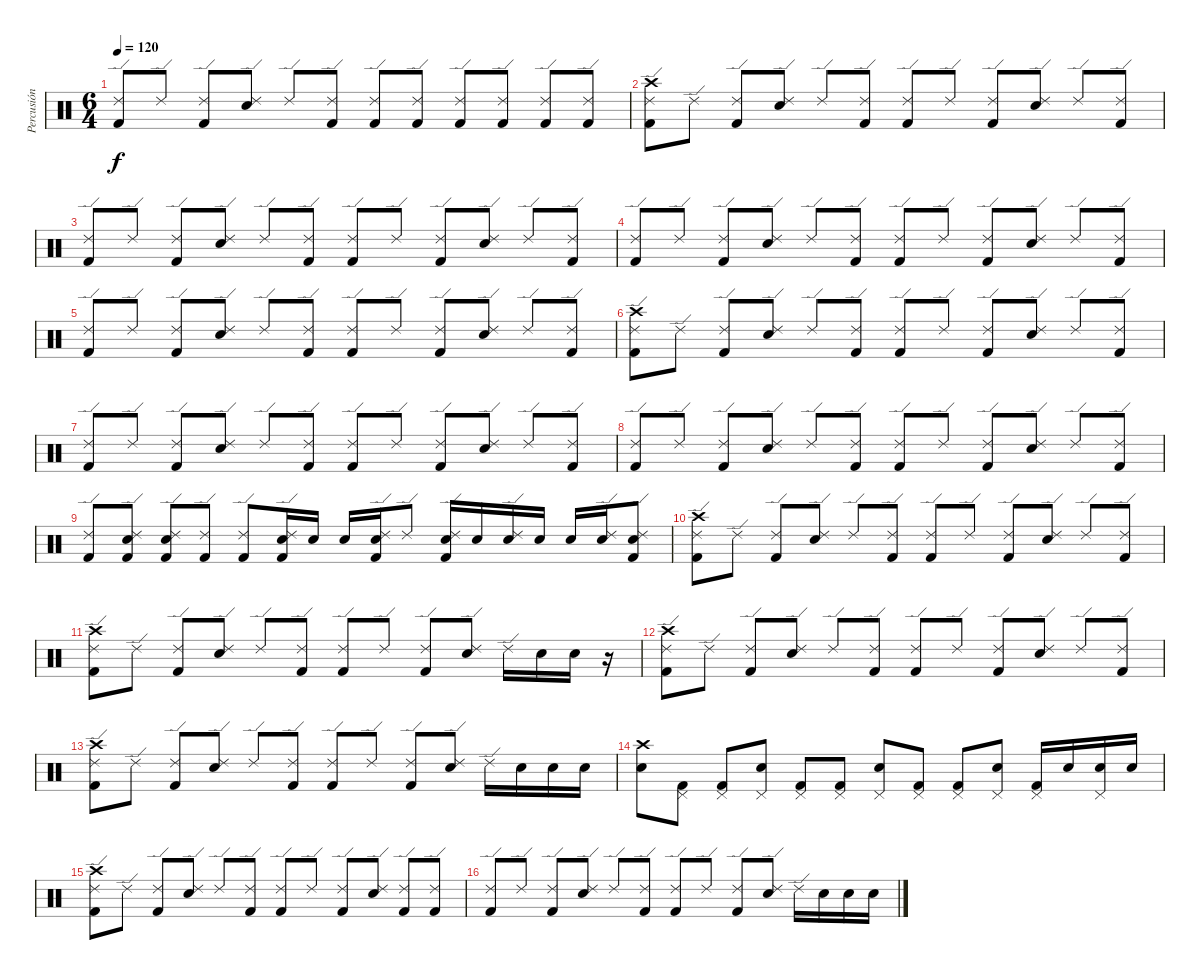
\track ("Percusión" "Percusión") {instrument percussion}
\staff {score}
\articulation defaults
\ts (6 4)
\tempo 120
\clef neutral
\ks c
("Kick (hit) 2" "Ride (edge) 2").8{dy f} "Ride (edge) 2".8 ("Kick (hit) 2" "Ride (edge) 2").8 ("Snare (hit) 2" "Ride (edge) 2").8 "Ride (edge) 2".8 ("Kick (hit) 2" "Ride (edge) 2").8 ("Kick (hit) 2" "Ride (edge) 2").8 ("Kick (hit) 2" "Ride (edge) 2").8 ("Kick (hit) 2" "Ride (edge) 2").8 ("Kick (hit) 2" "Ride (edge) 2").8 ("Kick (hit) 2" "Ride (edge) 2").8 ("Kick (hit) 2" "Ride (edge) 2").8 |
("Kick (hit) 2" "Crash high (hit)" "Ride (edge) 2").8 "Ride (edge) 2".8 ("Kick (hit) 2" "Ride (edge) 2").8 ("Snare (hit) 2" "Ride (edge) 2").8 "Ride (edge) 2".8 ("Kick (hit) 2" "Ride (edge) 2").8 ("Kick (hit) 2" "Ride (edge) 2").8 "Ride (edge) 2".8 ("Kick (hit) 2" "Ride (edge) 2").8 ("Snare (hit) 2" "Ride (edge) 2").8 "Ride (edge) 2".8 ("Kick (hit) 2" "Ride (edge) 2").8 |
("Kick (hit) 2" "Ride (edge) 2").8 "Ride (edge) 2".8 ("Kick (hit) 2" "Ride (edge) 2").8 ("Snare (hit) 2" "Ride (edge) 2").8 "Ride (edge) 2".8 ("Kick (hit) 2" "Ride (edge) 2").8 ("Kick (hit) 2" "Ride (edge) 2").8 "Ride (edge) 2".8 ("Kick (hit) 2" "Ride (edge) 2").8 ("Snare (hit) 2" "Ride (edge) 2").8 "Ride (edge) 2".8 ("Kick (hit) 2" "Ride (edge) 2").8 |
("Kick (hit) 2" "Ride (edge) 2").8 "Ride (edge) 2".8 ("Kick (hit) 2" "Ride (edge) 2").8 ("Snare (hit) 2" "Ride (edge) 2").8 "Ride (edge) 2".8 ("Kick (hit) 2" "Ride (edge) 2").8 ("Kick (hit) 2" "Ride (edge) 2").8 "Ride (edge) 2".8 ("Kick (hit) 2" "Ride (edge) 2").8 ("Snare (hit) 2" "Ride (edge) 2").8 "Ride (edge) 2".8 ("Kick (hit) 2" "Ride (edge) 2").8 |
("Kick (hit) 2" "Ride (edge) 2").8 "Ride (edge) 2".8 ("Kick (hit) 2" "Ride (edge) 2").8 ("Snare (hit) 2" "Ride (edge) 2").8 "Ride (edge) 2".8 ("Kick (hit) 2" "Ride (edge) 2").8 ("Kick (hit) 2" "Ride (edge) 2").8 "Ride (edge) 2".8 ("Kick (hit) 2" "Ride (edge) 2").8 ("Snare (hit) 2" "Ride (edge) 2").8 "Ride (edge) 2".8 ("Kick (hit) 2" "Ride (edge) 2").8 |
("Kick (hit) 2" "Crash high (hit)" "Ride (edge) 2").8 "Ride (edge) 2".8 ("Kick (hit) 2" "Ride (edge) 2").8 ("Snare (hit) 2" "Ride (edge) 2").8 "Ride (edge) 2".8 ("Kick (hit) 2" "Ride (edge) 2").8 ("Kick (hit) 2" "Ride (edge) 2").8 "Ride (edge) 2".8 ("Kick (hit) 2" "Ride (edge) 2").8 ("Snare (hit) 2" "Ride (edge) 2").8 "Ride (edge) 2".8 ("Kick (hit) 2" "Ride (edge) 2").8 |
("Kick (hit) 2" "Ride (edge) 2").8 "Ride (edge) 2".8 ("Kick (hit) 2" "Ride (edge) 2").8 ("Snare (hit) 2" "Ride (edge) 2").8 "Ride (edge) 2".8 ("Kick (hit) 2" "Ride (edge) 2").8 ("Kick (hit) 2" "Ride (edge) 2").8 "Ride (edge) 2".8 ("Kick (hit) 2" "Ride (edge) 2").8 ("Snare (hit) 2" "Ride (edge) 2").8 "Ride (edge) 2".8 ("Kick (hit) 2" "Ride (edge) 2").8 |
("Kick (hit) 2" "Ride (edge) 2").8 "Ride (edge) 2".8 ("Kick (hit) 2" "Ride (edge) 2").8 ("Snare (hit) 2" "Ride (edge) 2").8 "Ride (edge) 2".8 ("Kick (hit) 2" "Ride (edge) 2").8 ("Kick (hit) 2" "Ride (edge) 2").8 "Ride (edge) 2".8 ("Kick (hit) 2" "Ride (edge) 2").8 ("Snare (hit) 2" "Ride (edge) 2").8 "Ride (edge) 2".8 ("Kick (hit) 2" "Ride (edge) 2").8 |
("Kick (hit) 2" "Ride (edge) 2").8 ("Kick (hit) 2" "Snare (hit) 2" "Ride (edge) 2").8 ("Kick (hit) 2" "Snare (hit) 2" "Ride (edge) 2").8 ("Kick (hit) 2" "Ride (edge) 2").8 ("Kick (hit) 2" "Ride (edge) 2").8 ("Kick (hit) 2" "Snare (hit) 2" "Ride (edge) 2").16 "Snare (hit) 2".16 "Snare (hit) 2".16 ("Kick (hit) 2" "Snare (hit) 2" "Ride (edge) 2").16 "Ride (edge) 2".8 ("Kick (hit) 2" "Snare (hit) 2" "Ride (edge) 2").16 "Snare (hit) 2".16 ("Snare (hit) 2" "Ride (edge) 2").16 "Snare (hit) 2".16 "Snare (hit) 2".16 ("Snare (hit) 2" "Ride (edge) 2").16 ("Kick (hit) 2" "Snare (hit) 2" "Ride (edge) 2").8 |
("Kick (hit) 2" "Crash high (hit)" "Ride (edge) 2").8 "Ride (edge) 2".8 ("Kick (hit) 2" "Ride (edge) 2").8 ("Snare (hit) 2" "Ride (edge) 2").8 "Ride (edge) 2".8 ("Kick (hit) 2" "Ride (edge) 2").8 ("Kick (hit) 2" "Ride (edge) 2").8 "Ride (edge) 2".8 ("Kick (hit) 2" "Ride (edge) 2").8 ("Snare (hit) 2" "Ride (edge) 2").8 "Ride (edge) 2".8 ("Kick (hit) 2" "Ride (edge) 2").8 |
("Kick (hit) 2" "Crash high (hit)" "Ride (edge) 2").8 "Ride (edge) 2".8 ("Kick (hit) 2" "Ride (edge) 2").8 ("Snare (hit) 2" "Ride (edge) 2").8 "Ride (edge) 2".8 ("Kick (hit) 2" "Ride (edge) 2").8 ("Kick (hit) 2" "Ride (edge) 2").8 "Ride (edge) 2".8 ("Kick (hit) 2" "Ride (edge) 2").8 ("Snare (hit) 2" "Ride (edge) 2").8 "Ride (edge) 2".16 "Snare (hit) 2".16 "Snare (hit) 2".16 r.16 |
("Kick (hit) 2" "Crash high (hit)" "Ride (edge) 2").8 "Ride (edge) 2".8 ("Kick (hit) 2" "Ride (edge) 2").8 ("Snare (hit) 2" "Ride (edge) 2").8 "Ride (edge) 2".8 ("Kick (hit) 2" "Ride (edge) 2").8 ("Kick (hit) 2" "Ride (edge) 2").8 "Ride (edge) 2".8 ("Kick (hit) 2" "Ride (edge) 2").8 ("Snare (hit) 2" "Ride (edge) 2").8 "Ride (edge) 2".8 ("Kick (hit) 2" "Ride (edge) 2").8 |
("Kick (hit) 2" "Crash high (hit)" "Ride (edge) 2").8 "Ride (edge) 2".8 ("Kick (hit) 2" "Ride (edge) 2").8 ("Snare (hit) 2" "Ride (edge) 2").8 "Ride (edge) 2".8 ("Kick (hit) 2" "Ride (edge) 2").8 ("Kick (hit) 2" "Ride (edge) 2").8 "Ride (edge) 2".8 ("Kick (hit) 2" "Ride (edge) 2").8 ("Snare (hit) 2" "Ride (edge) 2").8 "Ride (edge) 2".16 "Snare (hit) 2".16 "Snare (hit) 2".16 "Snare (hit) 2".16 |
("Snare (hit) 2" "Crash high (hit)").8 ("Kick (hit) 2" "Pedal Hi-Hat (hit)").8 ("Kick (hit) 2" "Pedal Hi-Hat (hit)").8 ("Snare (hit) 2" "Pedal Hi-Hat (hit)").8 ("Kick (hit) 2" "Pedal Hi-Hat (hit)").8 ("Kick (hit) 2" "Pedal Hi-Hat (hit)").8 ("Snare (hit) 2" "Pedal Hi-Hat (hit)").8 ("Kick (hit) 2" "Pedal Hi-Hat (hit)").8 ("Kick (hit) 2" "Pedal Hi-Hat (hit)").8 ("Snare (hit) 2" "Pedal Hi-Hat (hit)").8 ("Kick (hit) 2" "Pedal Hi-Hat (hit)").16 "Snare (hit) 2".16 ("Snare (hit) 2" "Pedal Hi-Hat (hit)").16 "Snare (hit) 2".16 |
("Kick (hit) 2" "Crash high (hit)" "Ride (edge) 2").8 "Ride (edge) 2".8 ("Kick (hit) 2" "Ride (edge) 2").8 ("Snare (hit) 2" "Ride (edge) 2").8 "Ride (edge) 2".8 ("Kick (hit) 2" "Ride (edge) 2").8 ("Kick (hit) 2" "Ride (edge) 2").8 "Ride (edge) 2".8 ("Kick (hit) 2" "Ride (edge) 2").8 ("Snare (hit) 2" "Ride (edge) 2").8 ("Kick (hit) 2" "Ride (edge) 2").8 ("Kick (hit) 2" "Ride (edge) 2").8 |
("Kick (hit) 2" "Ride (edge) 2").8 "Ride (edge) 2".8 ("Kick (hit) 2" "Ride (edge) 2").8 ("Snare (hit) 2" "Ride (edge) 2").8 "Ride (edge) 2".8 ("Kick (hit) 2" "Ride (edge) 2").8 ("Kick (hit) 2" "Ride (edge) 2").8 "Ride (edge) 2".8 ("Kick (hit) 2" "Ride (edge) 2").8 ("Snare (hit) 2" "Ride (edge) 2").8 "Ride (edge) 2".16 "Snare (hit) 2".16 "Snare (hit) 2".16 "Snare (hit) 2".16
